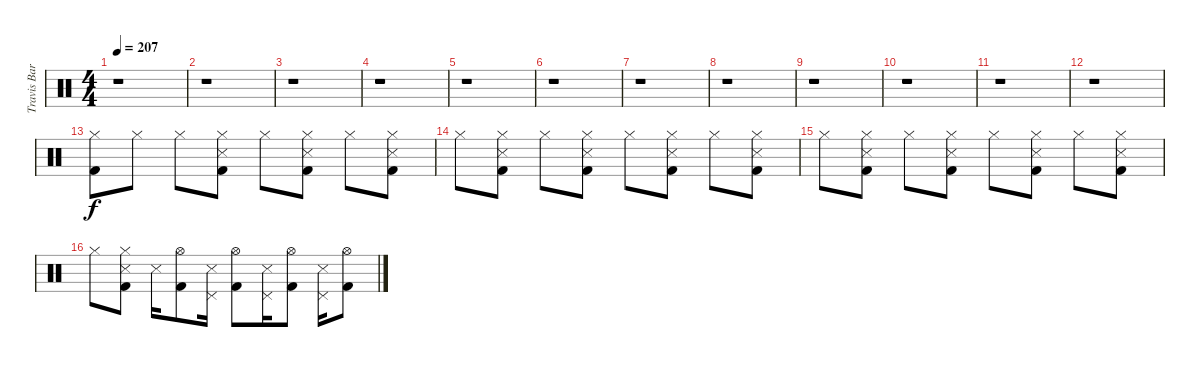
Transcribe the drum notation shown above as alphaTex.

\track ("Travis Barker" "Travis Bar") {instrument percussion}
\staff {score}
\articulation defaults
\ts (4 4)
\tempo 207
\clef neutral
\ks c
r.1{dy f} |
r.1 |
r.1 |
r.1 |
r.1 |
r.1 |
r.1 |
r.1 |
r.1 |
r.1 |
r.1 |
r.1 |
("Hi-Hat (closed)" "Kick (hit) 2").8 "Hi-Hat (closed)".8 "Hi-Hat (closed)".8 ("Hi-Hat (closed)" "Snare (side stick) 3" "Kick (hit) 2").8 "Hi-Hat (closed)".8 ("Hi-Hat (closed)" "Snare (side stick) 3" "Kick (hit) 2").8 "Hi-Hat (closed)".8 ("Hi-Hat (closed)" "Snare (side stick) 3" "Kick (hit) 2").8 |
"Hi-Hat (closed)".8 ("Hi-Hat (closed)" "Snare (side stick) 3" "Kick (hit) 2").8 "Hi-Hat (closed)".8 ("Hi-Hat (closed)" "Snare (side stick) 3" "Kick (hit) 2").8 "Hi-Hat (closed)".8 ("Hi-Hat (closed)" "Snare (side stick) 3" "Kick (hit) 2").8 "Hi-Hat (closed)".8 ("Hi-Hat (closed)" "Snare (side stick) 3" "Kick (hit) 2").8 |
"Hi-Hat (closed)".8 ("Hi-Hat (closed)" "Snare (side stick) 3" "Kick (hit) 2").8 "Hi-Hat (closed)".8 ("Hi-Hat (closed)" "Snare (side stick) 3" "Kick (hit) 2").8 "Hi-Hat (closed)".8 ("Hi-Hat (closed)" "Snare (side stick) 3" "Kick (hit) 2").8 "Hi-Hat (closed)".8 ("Hi-Hat (closed)" "Snare (side stick) 3" "Kick (hit) 2").8 |
"Hi-Hat (closed)".8 ("Hi-Hat (closed)" "Snare (side stick) 3" "Kick (hit) 2").8 "Snare (side stick) 3".16 ("Hi-Hat (open)" "Kick (hit) 2").8 ("Snare (side stick) 3" "Pedal Hi-Hat (hit)").16 ("Hi-Hat (open)" "Kick (hit) 2").8 ("Snare (side stick) 3" "Pedal Hi-Hat (hit)").16 ("Hi-Hat (open)" "Kick (hit) 2").8 ("Snare (side stick) 3" "Pedal Hi-Hat (hit)").16 ("Hi-Hat (open)" "Kick (hit) 2").8
